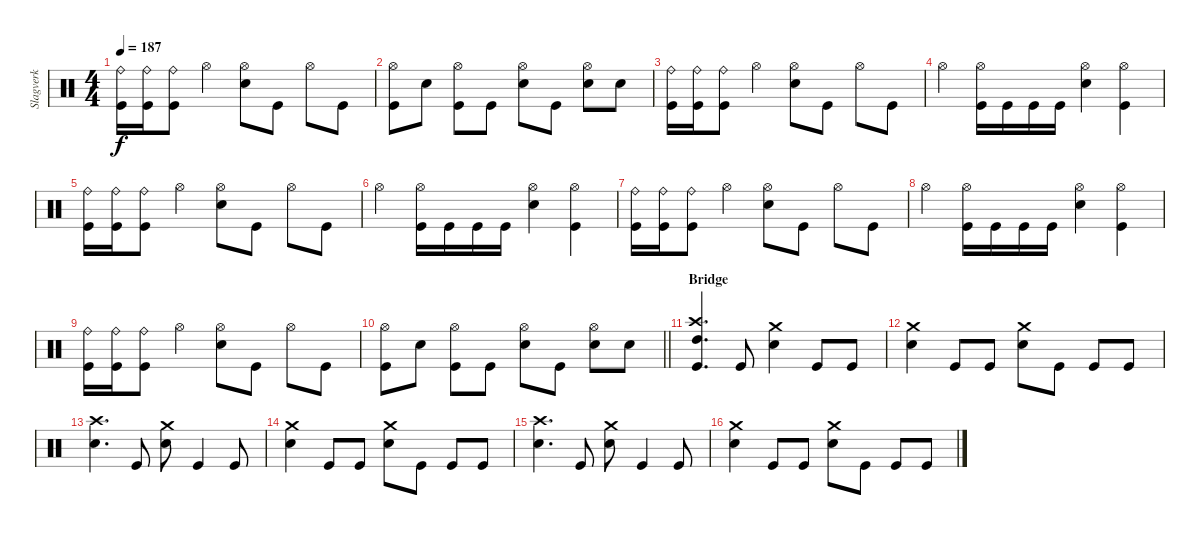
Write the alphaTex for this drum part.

\track ("Slagverk" "Slagverk") {instrument percussion}
\staff {score}
\articulation defaults
\ts (4 4)
\tempo 187
\clef neutral
\ks c
("Ride (bell)" "Kick (hit)").16{dy f} ("Ride (bell)" "Kick (hit)").16 ("Ride (bell)" "Kick (hit)").8 "Hi-Hat (open)".4 ("Hi-Hat (open)" "Electric Snare (hit)").8 "Kick (hit)".8 "Hi-Hat (open)".8 "Kick (hit)".8 |
("Hi-Hat (open)" "Kick (hit)").8 "Electric Snare (hit)".8 ("Hi-Hat (open)" "Kick (hit)").8 "Kick (hit)".8 ("Hi-Hat (open)" "Electric Snare (hit)").8 "Kick (hit)".8 ("Hi-Hat (open)" "Electric Snare (hit)").8 "Electric Snare (hit)".8 |
("Ride (bell)" "Kick (hit)").16 ("Ride (bell)" "Kick (hit)").16 ("Ride (bell)" "Kick (hit)").8 "Hi-Hat (open)".4 ("Hi-Hat (open)" "Electric Snare (hit)").8 "Kick (hit)".8 "Hi-Hat (open)".8 "Kick (hit)".8 |
"Hi-Hat (open)".4 ("Hi-Hat (open)" "Kick (hit)").16 "Kick (hit)".16 "Kick (hit)".16 "Kick (hit)".16 ("Hi-Hat (open)" "Electric Snare (hit)").4 ("Hi-Hat (open)" "Kick (hit)").4 |
("Ride (bell)" "Kick (hit)").16 ("Ride (bell)" "Kick (hit)").16 ("Ride (bell)" "Kick (hit)").8 "Hi-Hat (open)".4 ("Hi-Hat (open)" "Electric Snare (hit)").8 "Kick (hit)".8 "Hi-Hat (open)".8 "Kick (hit)".8 |
"Hi-Hat (open)".4 ("Hi-Hat (open)" "Kick (hit)").16 "Kick (hit)".16 "Kick (hit)".16 "Kick (hit)".16 ("Hi-Hat (open)" "Electric Snare (hit)").4 ("Hi-Hat (open)" "Kick (hit)").4 |
("Ride (bell)" "Kick (hit)").16 ("Ride (bell)" "Kick (hit)").16 ("Ride (bell)" "Kick (hit)").8 "Hi-Hat (open)".4 ("Hi-Hat (open)" "Electric Snare (hit)").8 "Kick (hit)".8 "Hi-Hat (open)".8 "Kick (hit)".8 |
"Hi-Hat (open)".4 ("Hi-Hat (open)" "Kick (hit)").16 "Kick (hit)".16 "Kick (hit)".16 "Kick (hit)".16 ("Hi-Hat (open)" "Electric Snare (hit)").4 ("Hi-Hat (open)" "Kick (hit)").4 |
("Ride (bell)" "Kick (hit)").16 ("Ride (bell)" "Kick (hit)").16 ("Ride (bell)" "Kick (hit)").8 "Hi-Hat (open)".4 ("Hi-Hat (open)" "Electric Snare (hit)").8 "Kick (hit)".8 "Hi-Hat (open)".8 "Kick (hit)".8 |
\barLineRight lightlight
("Hi-Hat (open)" "Kick (hit)").8 "Electric Snare (hit)".8 ("Hi-Hat (open)" "Kick (hit)").8 "Kick (hit)".8 ("Hi-Hat (open)" "Electric Snare (hit)").8 "Kick (hit)".8 ("Hi-Hat (open)" "Electric Snare (hit)").8 "Electric Snare (hit)".8 |
\section ("" "Bridge")
("Crash high (hit)" "High Tom (hit)" "Kick (hit)").4{d} "Kick (hit)".8 ("Crash medium (hit)" "Electric Snare (hit)").4 "Kick (hit)".8 "Kick (hit)".8 |
("Crash medium (hit)" "Electric Snare (hit)").4 "Kick (hit)".8 "Kick (hit)".8 ("Crash medium (hit)" "Electric Snare (hit)").8 "Kick (hit)".8 "Kick (hit)".8 "Kick (hit)".8 |
("Crash high (hit)" "Electric Snare (hit)").4{d} "Kick (hit)".8 ("Crash medium (hit)" "Electric Snare (hit)").8 "Kick (hit)".4 "Kick (hit)".8 |
("Crash medium (hit)" "Electric Snare (hit)").4 "Kick (hit)".8 "Kick (hit)".8 ("Crash medium (hit)" "Electric Snare (hit)").8 "Kick (hit)".8 "Kick (hit)".8 "Kick (hit)".8 |
("Crash high (hit)" "Electric Snare (hit)").4{d} "Kick (hit)".8 ("Crash medium (hit)" "Electric Snare (hit)").8 "Kick (hit)".4 "Kick (hit)".8 |
("Crash medium (hit)" "Electric Snare (hit)").4 "Kick (hit)".8 "Kick (hit)".8 ("Crash medium (hit)" "Electric Snare (hit)").8 "Kick (hit)".8 "Kick (hit)".8 "Kick (hit)".8
